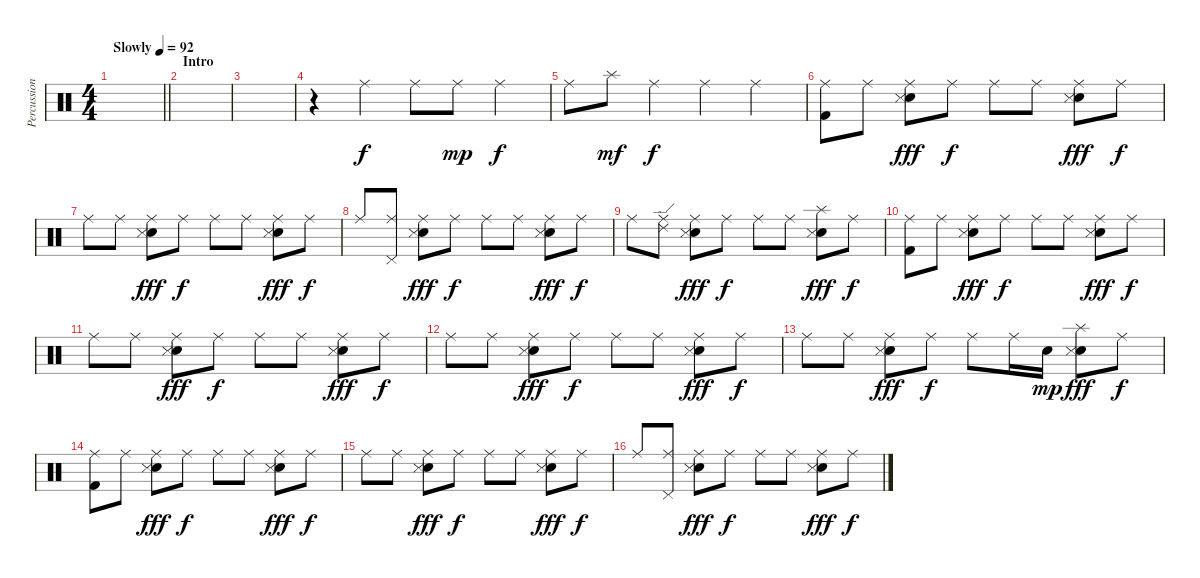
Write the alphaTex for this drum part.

\track ("Percussion" "Percussion") {instrument percussion}
\staff {score}
\articulation defaults
\ts (4 4)
\tempo (92 "Slowly")
\clef neutral
\barLineRight lightlight
\ks c
|
\section ("" "Intro")
|
|
r.4 "Ride (middle)".4 "Ride (middle)".8 "Ride (middle)".8{dy mp} "Ride (middle)".4{dy f} |
"Ride (middle)".8 "Splash (hit)".8{dy mf} "Ride (middle)".4{dy f} "Ride (middle)".4 "Ride (middle)".4 |
("Ride (middle)" "Kick (hit) 2").8 "Ride (middle)".8 ("Ride (middle)" "Snare (hit) 2" "Snare (side stick) 3").8{dy fff} "Ride (middle)".8{dy f} "Ride (middle)".8 "Ride (middle)".8 ("Ride (middle)" "Snare (hit) 2" "Snare (side stick) 3").8{dy fff} "Ride (middle)".8{dy f} |
"Ride (middle)".8 "Ride (middle)".8 ("Ride (middle)" "Snare (hit) 2" "Snare (side stick) 3").8{dy fff} "Ride (middle)".8{dy f} "Ride (middle)".8 "Ride (middle)".8 ("Ride (middle)" "Snare (hit) 2" "Snare (side stick) 3").8{dy fff} "Ride (middle)".8{dy f} |
"Ride (middle)".8 ("Pedal Hi-Hat (hit)" "Ride (middle)").8 ("Ride (middle)" "Snare (hit) 2" "Snare (side stick) 3").8{dy fff} "Ride (middle)".8{dy f} "Ride (middle)".8 "Ride (middle)".8 ("Ride (middle)" "Snare (hit) 2" "Snare (side stick) 3").8{dy fff} "Ride (middle)".8{dy f} |
"Ride (middle)".8 ("Ride (edge) 2" "Ride (middle)").8 ("Ride (middle)" "Snare (hit) 2" "Snare (side stick) 3").8{dy fff} "Ride (middle)".8{dy f} "Ride (middle)".8 "Ride (middle)".8 ("Splash (hit)" "Snare (hit) 2" "Snare (side stick) 3").8{dy fff} "Ride (middle)".8{dy f} |
("Ride (middle)" "Kick (hit) 2").8 "Ride (middle)".8 ("Ride (middle)" "Snare (hit) 2" "Snare (side stick) 3").8{dy fff} "Ride (middle)".8{dy f} "Ride (middle)".8 "Ride (middle)".8 ("Ride (middle)" "Snare (hit) 2" "Snare (side stick) 3").8{dy fff} "Ride (middle)".8{dy f} |
"Ride (middle)".8 "Ride (middle)".8 ("Ride (middle)" "Snare (hit) 2" "Snare (side stick) 3").8{dy fff} "Ride (middle)".8{dy f} "Ride (middle)".8 "Ride (middle)".8 ("Ride (middle)" "Snare (hit) 2" "Snare (side stick) 3").8{dy fff} "Ride (middle)".8{dy f} |
"Ride (middle)".8 "Ride (middle)".8 ("Ride (middle)" "Snare (hit) 2" "Snare (side stick) 3").8{dy fff} "Ride (middle)".8{dy f} "Ride (middle)".8 "Ride (middle)".8 ("Ride (middle)" "Snare (hit) 2" "Snare (side stick) 3").8{dy fff} "Ride (middle)".8{dy f} |
"Ride (middle)".8 "Ride (middle)".8 ("Ride (middle)" "Snare (hit) 2" "Snare (side stick) 3").8{dy fff} "Ride (middle)".8{dy f} "Ride (middle)".8 "Ride (middle)".16 "Snare (hit) 2".16{dy mp} ("Splash (hit)" "Snare (hit) 2" "Snare (side stick) 3").8{dy fff} "Ride (middle)".8{dy f} |
("Ride (middle)" "Kick (hit) 2").8 "Ride (middle)".8 ("Ride (middle)" "Snare (hit) 2" "Snare (side stick) 3").8{dy fff} "Ride (middle)".8{dy f} "Ride (middle)".8 "Ride (middle)".8 ("Ride (middle)" "Snare (hit) 2" "Snare (side stick) 3").8{dy fff} "Ride (middle)".8{dy f} |
"Ride (middle)".8 "Ride (middle)".8 ("Ride (middle)" "Snare (hit) 2" "Snare (side stick) 3").8{dy fff} "Ride (middle)".8{dy f} "Ride (middle)".8 "Ride (middle)".8 ("Ride (middle)" "Snare (hit) 2" "Snare (side stick) 3").8{dy fff} "Ride (middle)".8{dy f} |
"Ride (middle)".8 ("Pedal Hi-Hat (hit)" "Ride (middle)").8 ("Ride (middle)" "Snare (hit) 2" "Snare (side stick) 3").8{dy fff} "Ride (middle)".8{dy f} "Ride (middle)".8 "Ride (middle)".8 ("Ride (middle)" "Snare (hit) 2" "Snare (side stick) 3").8{dy fff} "Ride (middle)".8{dy f}
